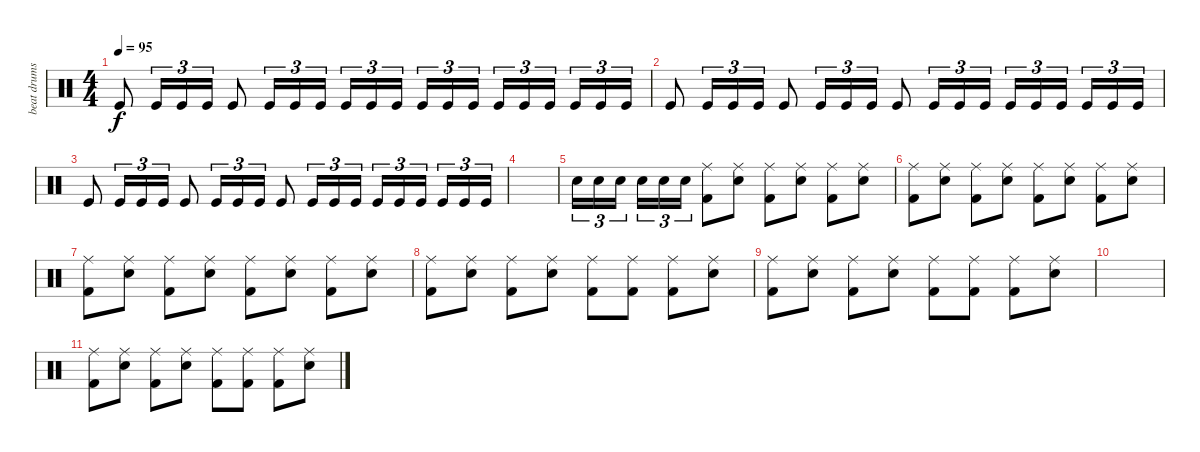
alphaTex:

\track ("beat drums" "beat drums") {instrument percussion}
\staff {score}
\articulation defaults
\ts (4 4)
\tempo 95
\clef neutral
\ks c "Kick (hit)".8{dy f} "Kick (hit)".16{tu (3 2)} "Kick (hit)".16{tu (3 2)} "Kick (hit)".16{tu (3 2)} "Kick (hit)".8 "Kick (hit)".16{tu (3 2)} "Kick (hit)".16{tu (3 2)} "Kick (hit)".16{tu (3 2)} "Kick (hit)".16{tu (3 2)} "Kick (hit)".16{tu (3 2)} "Kick (hit)".16{tu (3 2) beam splitsecondary} "Kick (hit)".16{tu (3 2)} "Kick (hit)".16{tu (3 2)} "Kick (hit)".16{tu (3 2)} "Kick (hit)".16{tu (3 2)} "Kick (hit)".16{tu (3 2)} "Kick (hit)".16{tu (3 2) beam splitsecondary} "Kick (hit)".16{tu (3 2)} "Kick (hit)".16{tu (3 2)} "Kick (hit)".16{tu (3 2)}
|
"Kick (hit)".8 "Kick (hit)".16{tu (3 2)} "Kick (hit)".16{tu (3 2)} "Kick (hit)".16{tu (3 2)} "Kick (hit)".8 "Kick (hit)".16{tu (3 2)} "Kick (hit)".16{tu (3 2)} "Kick (hit)".16{tu (3 2)} "Kick (hit)".8 "Kick (hit)".16{tu (3 2)} "Kick (hit)".16{tu (3 2)} "Kick (hit)".16{tu (3 2)} "Kick (hit)".16{tu (3 2)} "Kick (hit)".16{tu (3 2)} "Kick (hit)".16{tu (3 2) beam splitsecondary} "Kick (hit)".16{tu (3 2)} "Kick (hit)".16{tu (3 2)} "Kick (hit)".16{tu (3 2)} |
"Kick (hit)".8 "Kick (hit)".16{tu (3 2)} "Kick (hit)".16{tu (3 2)} "Kick (hit)".16{tu (3 2)} "Kick (hit)".8 "Kick (hit)".16{tu (3 2)} "Kick (hit)".16{tu (3 2)} "Kick (hit)".16{tu (3 2)} "Kick (hit)".8 "Kick (hit)".16{tu (3 2)} "Kick (hit)".16{tu (3 2)} "Kick (hit)".16{tu (3 2)} "Kick (hit)".16{tu (3 2)} "Kick (hit)".16{tu (3 2)} "Kick (hit)".16{tu (3 2) beam splitsecondary} "Kick (hit)".16{tu (3 2)} "Kick (hit)".16{tu (3 2)} "Kick (hit)".16{tu (3 2)} |
|
"Electric Snare (hit)".16{tu (3 2)} "Electric Snare (hit)".16{tu (3 2)} "Electric Snare (hit)".16{tu (3 2) beam splitsecondary} "Electric Snare (hit)".16{tu (3 2)} "Electric Snare (hit)".16{tu (3 2)} "Electric Snare (hit)".16{tu (3 2)} ("Ride (middle)" "Kick (hit) 2").8 ("Ride (middle)" "Electric Snare (hit)").8 ("Ride (middle)" "Kick (hit) 2").8 ("Ride (middle)" "Electric Snare (hit)").8 ("Ride (middle)" "Kick (hit) 2").8 ("Ride (middle)" "Electric Snare (hit)").8 |
("Ride (middle)" "Kick (hit) 2").8 ("Ride (middle)" "Electric Snare (hit)").8 ("Ride (middle)" "Kick (hit) 2").8 ("Ride (middle)" "Electric Snare (hit)").8 ("Ride (middle)" "Kick (hit) 2").8 ("Ride (middle)" "Electric Snare (hit)").8 ("Ride (middle)" "Kick (hit) 2").8 ("Ride (middle)" "Electric Snare (hit)").8 |
("Ride (middle)" "Kick (hit) 2").8 ("Ride (middle)" "Electric Snare (hit)").8 ("Ride (middle)" "Kick (hit) 2").8 ("Ride (middle)" "Electric Snare (hit)").8 ("Ride (middle)" "Kick (hit) 2").8 ("Ride (middle)" "Electric Snare (hit)").8 ("Ride (middle)" "Kick (hit) 2").8 ("Ride (middle)" "Electric Snare (hit)").8 |
("Ride (middle)" "Kick (hit) 2").8 ("Ride (middle)" "Electric Snare (hit)").8 ("Ride (middle)" "Kick (hit) 2").8 ("Ride (middle)" "Electric Snare (hit)").8 ("Ride (middle)" "Kick (hit) 2").8 ("Ride (middle)" "Kick (hit) 2").8 ("Ride (middle)" "Kick (hit) 2").8 ("Ride (middle)" "Electric Snare (hit)").8 |
("Ride (middle)" "Kick (hit) 2").8 ("Ride (middle)" "Electric Snare (hit)").8 ("Ride (middle)" "Kick (hit) 2").8 ("Ride (middle)" "Electric Snare (hit)").8 ("Ride (middle)" "Kick (hit) 2").8 ("Ride (middle)" "Kick (hit) 2").8 ("Ride (middle)" "Kick (hit) 2").8 ("Ride (middle)" "Electric Snare (hit)").8 |
|
("Ride (middle)" "Kick (hit) 2").8 ("Ride (middle)" "Electric Snare (hit)").8 ("Ride (middle)" "Kick (hit) 2").8 ("Ride (middle)" "Electric Snare (hit)").8 ("Ride (middle)" "Kick (hit) 2").8 ("Ride (middle)" "Kick (hit) 2").8 ("Ride (middle)" "Kick (hit) 2").8 ("Ride (middle)" "Electric Snare (hit)").8
